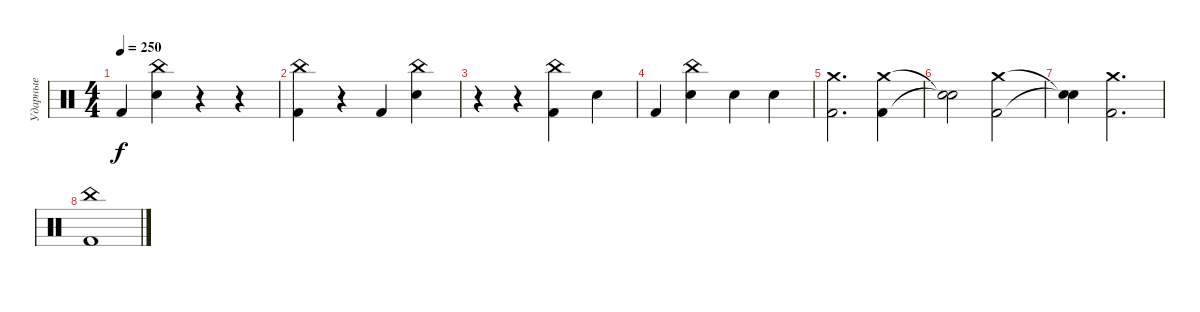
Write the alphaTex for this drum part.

\track ("Ударные" "Ударные") {instrument percussion}
\staff {score}
\articulation defaults
\ts (4 4)
\tempo 250
\clef neutral
\ks c "Kick (hit) 2".4{dy f}
("Snare (hit) 2" "China (hit)").4 r.4 r.4 |
("China (hit)" "Kick (hit) 2").4 r.4 "Kick (hit) 2".4 ("Snare (hit) 2" "China (hit)").4 |
r.4 r.4 ("China (hit)" "Kick (hit) 2").4 "Snare (hit) 2".4 |
"Kick (hit) 2".4 ("Snare (hit) 2" "China (hit)").4 "Snare (hit) 2".4 "Snare (hit) 2".4 |
("Crash medium (hit)" "Kick (hit) 2").2{d} ("Crash medium (hit)" "Kick (hit) 2").4 |
("Snare (hit)"{t} "Snare (hit)"{t}).2 ("Crash medium (hit)" "Kick (hit) 2").2 |
("Snare (hit)"{t} "Snare (hit)"{t}).4 ("Crash medium (hit)" "Kick (hit) 2").2{d} |
("China (hit)" "Kick (hit) 2").1
